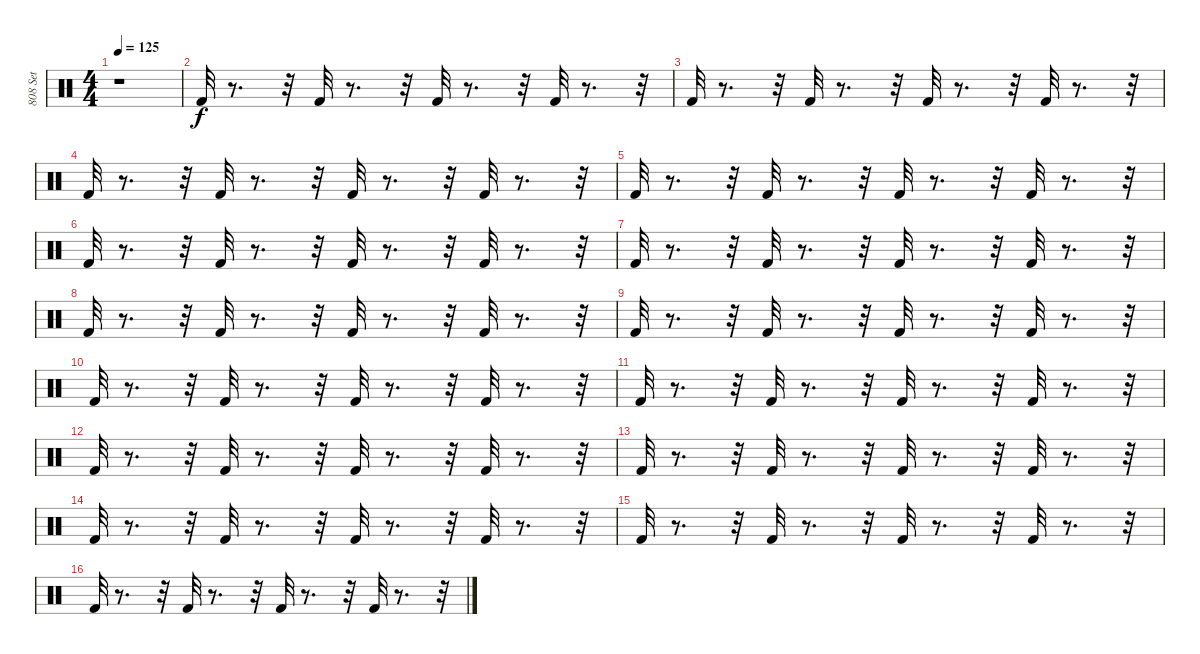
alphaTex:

\track ("808 Set" "808 Set") {instrument percussion}
\staff {score}
\articulation defaults
\ts (4 4)
\tempo 125
\clef neutral
\ks c
r.1{dy f} |
"Kick (hit) 2".32 r.8{d} r.32 "Kick (hit) 2".32 r.8{d} r.32 "Kick (hit) 2".32 r.8{d} r.32 "Kick (hit) 2".32 r.8{d} r.32 |
"Kick (hit) 2".32 r.8{d} r.32 "Kick (hit) 2".32 r.8{d} r.32 "Kick (hit) 2".32 r.8{d} r.32 "Kick (hit) 2".32 r.8{d} r.32 |
"Kick (hit) 2".32 r.8{d} r.32 "Kick (hit) 2".32 r.8{d} r.32 "Kick (hit) 2".32 r.8{d} r.32 "Kick (hit) 2".32 r.8{d} r.32 |
"Kick (hit) 2".32 r.8{d} r.32 "Kick (hit) 2".32 r.8{d} r.32 "Kick (hit) 2".32 r.8{d} r.32 "Kick (hit) 2".32 r.8{d} r.32 |
"Kick (hit) 2".32 r.8{d} r.32 "Kick (hit) 2".32 r.8{d} r.32 "Kick (hit) 2".32 r.8{d} r.32 "Kick (hit) 2".32 r.8{d} r.32 |
"Kick (hit) 2".32 r.8{d} r.32 "Kick (hit) 2".32 r.8{d} r.32 "Kick (hit) 2".32 r.8{d} r.32 "Kick (hit) 2".32 r.8{d} r.32 |
"Kick (hit) 2".32 r.8{d} r.32 "Kick (hit) 2".32 r.8{d} r.32 "Kick (hit) 2".32 r.8{d} r.32 "Kick (hit) 2".32 r.8{d} r.32 |
"Kick (hit) 2".32 r.8{d} r.32 "Kick (hit) 2".32 r.8{d} r.32 "Kick (hit) 2".32 r.8{d} r.32 "Kick (hit) 2".32 r.8{d} r.32 |
"Kick (hit) 2".32 r.8{d} r.32 "Kick (hit) 2".32 r.8{d} r.32 "Kick (hit) 2".32 r.8{d} r.32 "Kick (hit) 2".32 r.8{d} r.32 |
"Kick (hit) 2".32 r.8{d} r.32 "Kick (hit) 2".32 r.8{d} r.32 "Kick (hit) 2".32 r.8{d} r.32 "Kick (hit) 2".32 r.8{d} r.32 |
"Kick (hit) 2".32 r.8{d} r.32 "Kick (hit) 2".32 r.8{d} r.32 "Kick (hit) 2".32 r.8{d} r.32 "Kick (hit) 2".32 r.8{d} r.32 |
"Kick (hit) 2".32 r.8{d} r.32 "Kick (hit) 2".32 r.8{d} r.32 "Kick (hit) 2".32 r.8{d} r.32 "Kick (hit) 2".32 r.8{d} r.32 |
"Kick (hit) 2".32 r.8{d} r.32 "Kick (hit) 2".32 r.8{d} r.32 "Kick (hit) 2".32 r.8{d} r.32 "Kick (hit) 2".32 r.8{d} r.32 |
"Kick (hit) 2".32 r.8{d} r.32 "Kick (hit) 2".32 r.8{d} r.32 "Kick (hit) 2".32 r.8{d} r.32 "Kick (hit) 2".32 r.8{d} r.32 |
"Kick (hit) 2".32 r.8{d} r.32 "Kick (hit) 2".32 r.8{d} r.32 "Kick (hit) 2".32 r.8{d} r.32 "Kick (hit) 2".32 r.8{d} r.32
